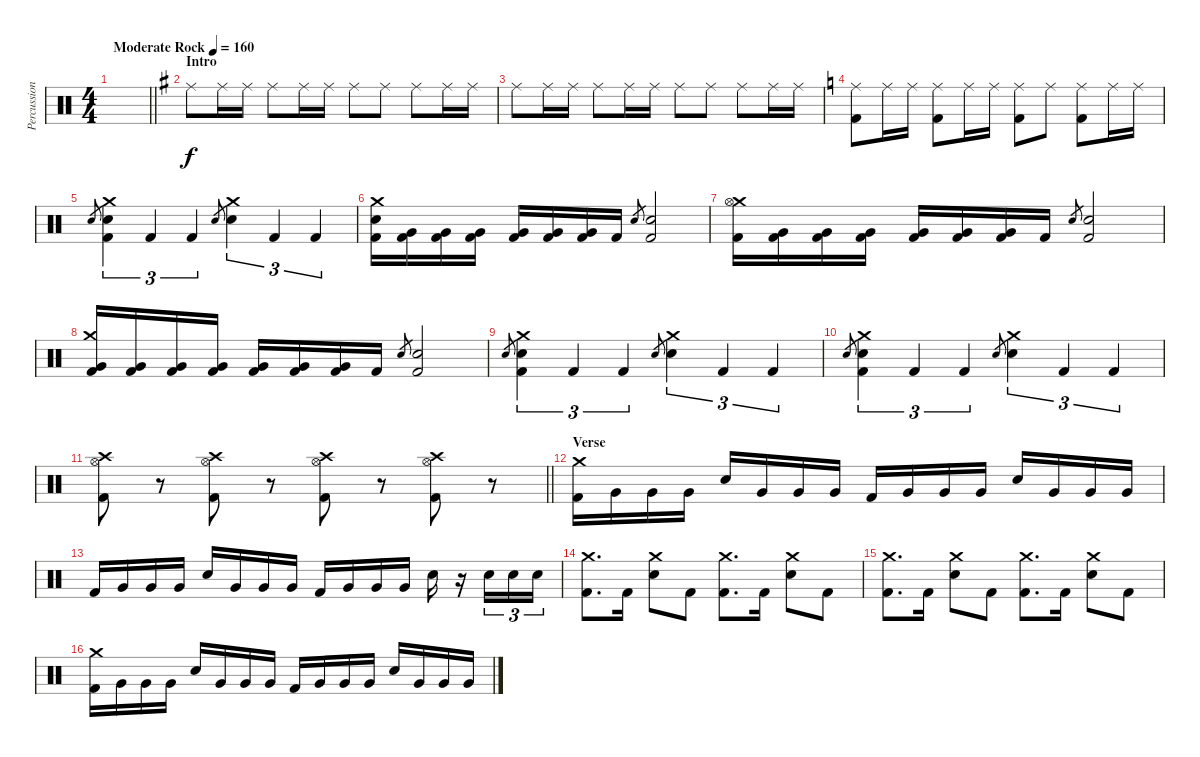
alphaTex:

\track ("Percussion" "Percussion") {instrument percussion}
\staff {score}
\articulation defaults
\ts (4 4)
\tempo (160 "Moderate Rock")
\clef neutral
\barLineRight lightlight
\ks c
|
\section ("" "Intro")
\ks g "Ride (middle)".8 "Ride (middle)".16 "Ride (middle)".16 "Ride (middle)".8 "Ride (middle)".16 "Ride (middle)".16 "Ride (middle)".8 "Ride (middle)".8 "Ride (middle)".8 "Ride (middle)".16 "Ride (middle)".16
|
"Ride (middle)".8 "Ride (middle)".16 "Ride (middle)".16 "Ride (middle)".8 "Ride (middle)".16 "Ride (middle)".16 "Ride (middle)".8 "Ride (middle)".8 "Ride (middle)".8 "Ride (middle)".16 "Ride (middle)".16 |
\ks c
("Ride (middle)" "Kick (hit) 2").8 "Ride (middle)".16 "Ride (middle)".16 ("Ride (middle)" "Kick (hit) 2").8 "Ride (middle)".16 "Ride (middle)".16 ("Ride (middle)" "Kick (hit) 2").8 "Ride (middle)".8 ("Ride (middle)" "Kick (hit) 2").8 "Ride (middle)".16 "Ride (middle)".16 |
"Electric Snare (hit)".8{gr} ("Crash medium (hit)" "Electric Snare (hit)" "Kick (hit) 2").4{tu (3 2)} "Kick (hit) 2".4{tu (3 2)} "Kick (hit) 2".4{tu (3 2)} "Electric Snare (hit)".8{gr} ("Crash medium (hit)" "Electric Snare (hit)").4{tu (3 2)} "Kick (hit) 2".4{tu (3 2)} "Kick (hit) 2".4{tu (3 2)} |
("Crash medium (hit)" "Electric Snare (hit)" "Kick (hit) 2").16 ("Very Low Tom (hit)" "Kick (hit) 2").16 ("Very Low Tom (hit)" "Kick (hit) 2").16 ("Very Low Tom (hit)" "Kick (hit) 2").16 ("Very Low Tom (hit)" "Kick (hit) 2").16 ("Very Low Tom (hit)" "Kick (hit) 2").16 ("Very Low Tom (hit)" "Kick (hit) 2").16 "Kick (hit) 2".16 "Electric Snare (hit)".8{gr} ("Electric Snare (hit)" "Kick (hit) 2").2 |
("Crash medium (hit)" "Hi-Hat (open)" "Kick (hit) 2").16 ("Very Low Tom (hit)" "Kick (hit) 2").16 ("Very Low Tom (hit)" "Kick (hit) 2").16 ("Very Low Tom (hit)" "Kick (hit) 2").16 ("Very Low Tom (hit)" "Kick (hit) 2").16 ("Very Low Tom (hit)" "Kick (hit) 2").16 ("Very Low Tom (hit)" "Kick (hit) 2").16 "Kick (hit) 2".16 "Electric Snare (hit)".8{gr} ("Electric Snare (hit)" "Kick (hit) 2").2 |
("Crash medium (hit)" "Very Low Tom (hit)" "Kick (hit) 2").16 ("Very Low Tom (hit)" "Kick (hit) 2").16 ("Very Low Tom (hit)" "Kick (hit) 2").16 ("Very Low Tom (hit)" "Kick (hit) 2").16 ("Very Low Tom (hit)" "Kick (hit) 2").16 ("Very Low Tom (hit)" "Kick (hit) 2").16 ("Very Low Tom (hit)" "Kick (hit) 2").16 "Kick (hit) 2".16 "Electric Snare (hit)".8{gr} ("Electric Snare (hit)" "Kick (hit) 2").2 |
"Electric Snare (hit)".8{gr} ("Crash medium (hit)" "Electric Snare (hit)" "Kick (hit) 2").4{tu (3 2)} "Kick (hit) 2".4{tu (3 2)} "Kick (hit) 2".4{tu (3 2)} "Electric Snare (hit)".8{gr} ("Crash medium (hit)" "Electric Snare (hit)").4{tu (3 2)} "Kick (hit) 2".4{tu (3 2)} "Kick (hit) 2".4{tu (3 2)} |
"Electric Snare (hit)".8{gr} ("Crash medium (hit)" "Electric Snare (hit)" "Kick (hit) 2").4{tu (3 2)} "Kick (hit) 2".4{tu (3 2)} "Kick (hit) 2".4{tu (3 2)} "Electric Snare (hit)".8{gr} ("Crash medium (hit)" "Electric Snare (hit)").4{tu (3 2)} "Kick (hit) 2".4{tu (3 2)} "Kick (hit) 2".4{tu (3 2)} |
\barLineRight lightlight
("Crash high (hit)" "Hi-Hat (open)" "Kick (hit) 2").8 r.8 ("Crash high (hit)" "Hi-Hat (open)" "Kick (hit) 2").8 r.8 ("Crash high (hit)" "Hi-Hat (open)" "Kick (hit) 2").8 r.8 ("Crash high (hit)" "Hi-Hat (open)" "Kick (hit) 2").8 r.8 |
\section ("" "Verse")
("Crash medium (hit)" "Kick (hit) 2").16 "Very Low Tom (hit)".16 "Very Low Tom (hit)".16 "Very Low Tom (hit)".16 "Electric Snare (hit)".16 "Very Low Tom (hit)".16 "Very Low Tom (hit)".16 "Very Low Tom (hit)".16 "Kick (hit) 2".16 "Very Low Tom (hit)".16 "Very Low Tom (hit)".16 "Very Low Tom (hit)".16 "Electric Snare (hit)".16 "Very Low Tom (hit)".16 "Very Low Tom (hit)".16 "Very Low Tom (hit)".16 |
"Kick (hit) 2".16 "Very Low Tom (hit)".16 "Very Low Tom (hit)".16 "Very Low Tom (hit)".16 "Electric Snare (hit)".16 "Very Low Tom (hit)".16 "Very Low Tom (hit)".16 "Very Low Tom (hit)".16 "Kick (hit) 2".16 "Very Low Tom (hit)".16 "Very Low Tom (hit)".16 "Very Low Tom (hit)".16 "Electric Snare (hit)".16 r.16 "Electric Snare (hit)".16{tu (3 2)} "Electric Snare (hit)".16{tu (3 2)} "Electric Snare (hit)".16{tu (3 2)} |
("Crash medium (hit)" "Kick (hit) 2").8{d} "Kick (hit) 2".16 ("Crash medium (hit)" "Electric Snare (hit)").8 "Kick (hit) 2".8 ("Crash medium (hit)" "Kick (hit) 2").8{d} "Kick (hit) 2".16 ("Crash medium (hit)" "Electric Snare (hit)").8 "Kick (hit) 2".8 |
("Crash medium (hit)" "Kick (hit) 2").8{d} "Kick (hit) 2".16 ("Crash medium (hit)" "Electric Snare (hit)").8 "Kick (hit) 2".8 ("Crash medium (hit)" "Kick (hit) 2").8{d} "Kick (hit) 2".16 ("Crash medium (hit)" "Electric Snare (hit)").8 "Kick (hit) 2".8 |
("Crash medium (hit)" "Kick (hit) 2").16 "Very Low Tom (hit)".16 "Very Low Tom (hit)".16 "Very Low Tom (hit)".16 "Electric Snare (hit)".16 "Very Low Tom (hit)".16 "Very Low Tom (hit)".16 "Very Low Tom (hit)".16 "Kick (hit) 2".16 "Very Low Tom (hit)".16 "Very Low Tom (hit)".16 "Very Low Tom (hit)".16 "Electric Snare (hit)".16 "Very Low Tom (hit)".16 "Very Low Tom (hit)".16 "Very Low Tom (hit)".16
